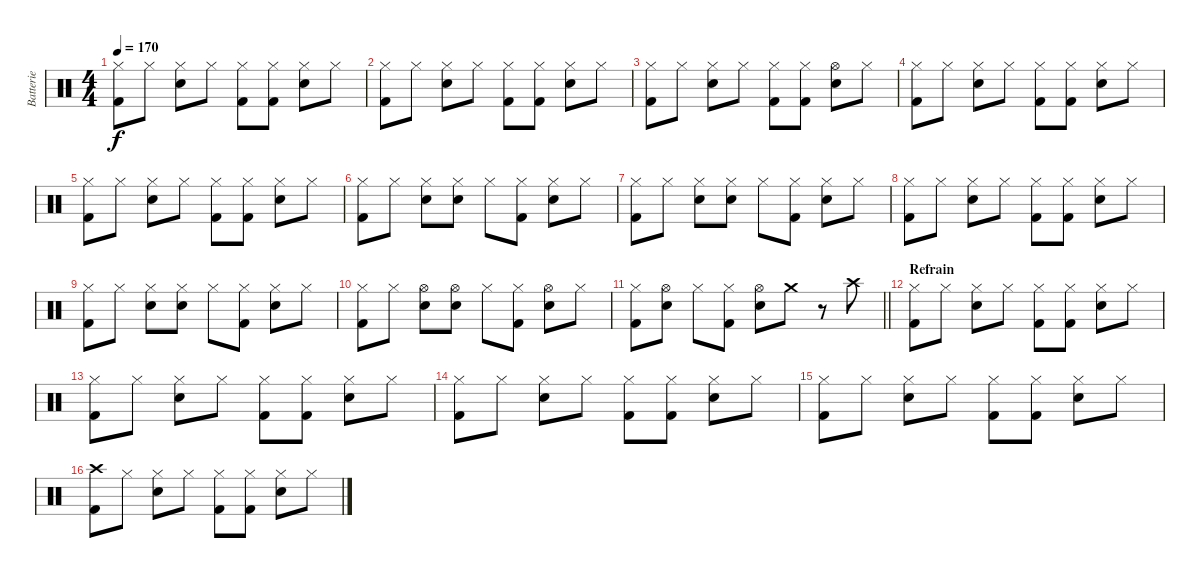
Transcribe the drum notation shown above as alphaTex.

\track ("Batterie" "Batterie") {instrument percussion}
\staff {score}
\articulation defaults
\ts (4 4)
\tempo 170
\clef neutral
\ks c
("Kick (hit) 2" "Hi-Hat (closed)").8{dy f} "Hi-Hat (closed)".8 ("Snare (hit) 2" "Hi-Hat (closed)").8 "Hi-Hat (closed)".8 ("Kick (hit) 2" "Hi-Hat (closed)").8 ("Kick (hit) 2" "Hi-Hat (closed)").8 ("Snare (hit) 2" "Hi-Hat (closed)").8 "Hi-Hat (closed)".8 |
("Kick (hit) 2" "Hi-Hat (closed)").8 "Hi-Hat (closed)".8 ("Snare (hit) 2" "Hi-Hat (closed)").8 "Hi-Hat (closed)".8 ("Kick (hit) 2" "Hi-Hat (closed)").8 ("Kick (hit) 2" "Hi-Hat (closed)").8 ("Snare (hit) 2" "Hi-Hat (closed)").8 "Hi-Hat (closed)".8 |
("Kick (hit) 2" "Hi-Hat (closed)").8 "Hi-Hat (closed)".8 ("Snare (hit) 2" "Hi-Hat (closed)").8 "Hi-Hat (closed)".8 ("Kick (hit) 2" "Hi-Hat (closed)").8 ("Kick (hit) 2" "Hi-Hat (closed)").8 ("Snare (hit) 2" "Hi-Hat (open)").8 "Hi-Hat (closed)".8 |
("Kick (hit) 2" "Hi-Hat (closed)").8 "Hi-Hat (closed)".8 ("Snare (hit) 2" "Hi-Hat (closed)").8 "Hi-Hat (closed)".8 ("Kick (hit) 2" "Hi-Hat (closed)").8 ("Kick (hit) 2" "Hi-Hat (closed)").8 ("Snare (hit) 2" "Hi-Hat (closed)").8 "Hi-Hat (closed)".8 |
("Kick (hit) 2" "Hi-Hat (closed)").8 "Hi-Hat (closed)".8 ("Snare (hit) 2" "Hi-Hat (closed)").8 "Hi-Hat (closed)".8 ("Kick (hit) 2" "Hi-Hat (closed)").8 ("Kick (hit) 2" "Hi-Hat (closed)").8 ("Snare (hit) 2" "Hi-Hat (closed)").8 "Hi-Hat (closed)".8 |
("Kick (hit) 2" "Hi-Hat (closed)").8 "Hi-Hat (closed)".8 ("Snare (hit) 2" "Hi-Hat (closed)").8 ("Snare (hit) 2" "Hi-Hat (closed)").8 "Hi-Hat (closed)".8 ("Kick (hit) 2" "Hi-Hat (closed)").8 ("Snare (hit) 2" "Hi-Hat (closed)").8 "Hi-Hat (closed)".8 |
("Kick (hit) 2" "Hi-Hat (closed)").8 "Hi-Hat (closed)".8 ("Snare (hit) 2" "Hi-Hat (closed)").8 ("Snare (hit) 2" "Hi-Hat (closed)").8 "Hi-Hat (closed)".8 ("Kick (hit) 2" "Hi-Hat (closed)").8 ("Snare (hit) 2" "Hi-Hat (closed)").8 "Hi-Hat (closed)".8 |
("Kick (hit) 2" "Hi-Hat (closed)").8 "Hi-Hat (closed)".8 ("Snare (hit) 2" "Hi-Hat (closed)").8 "Hi-Hat (closed)".8 ("Kick (hit) 2" "Hi-Hat (closed)").8 ("Kick (hit) 2" "Hi-Hat (closed)").8 ("Snare (hit) 2" "Hi-Hat (closed)").8 "Hi-Hat (closed)".8 |
("Kick (hit) 2" "Hi-Hat (closed)").8 "Hi-Hat (closed)".8 ("Snare (hit) 2" "Hi-Hat (closed)").8 ("Snare (hit) 2" "Hi-Hat (closed)").8 "Hi-Hat (closed)".8 ("Kick (hit) 2" "Hi-Hat (closed)").8 ("Snare (hit) 2" "Hi-Hat (closed)").8 "Hi-Hat (closed)".8 |
("Kick (hit) 2" "Hi-Hat (closed)").8 "Hi-Hat (closed)".8 ("Snare (hit) 2" "Hi-Hat (open)").8 ("Snare (hit) 2" "Hi-Hat (open)").8 "Hi-Hat (closed)".8 ("Kick (hit) 2" "Hi-Hat (closed)").8 ("Snare (hit) 2" "Hi-Hat (open)").8 "Hi-Hat (closed)".8 |
\barLineRight lightlight
("Kick (hit) 2" "Hi-Hat (closed)").8 ("Snare (hit) 2" "Hi-Hat (open)").8 "Hi-Hat (closed)".8 ("Kick (hit) 2" "Hi-Hat (closed)").8 ("Snare (hit) 2" "Hi-Hat (open)").8 "Crash medium (hit)".8 r.8 "Crash high (hit)".8 |
\section ("" "Refrain")
("Kick (hit) 2" "Hi-Hat (closed)").8 "Hi-Hat (closed)".8 ("Snare (hit) 2" "Hi-Hat (closed)").8 "Hi-Hat (closed)".8 ("Kick (hit) 2" "Hi-Hat (closed)").8 ("Kick (hit) 2" "Hi-Hat (closed)").8 ("Snare (hit) 2" "Hi-Hat (closed)").8 "Hi-Hat (closed)".8 |
("Kick (hit) 2" "Hi-Hat (closed)").8 "Hi-Hat (closed)".8 ("Snare (hit) 2" "Hi-Hat (closed)").8 "Hi-Hat (closed)".8 ("Kick (hit) 2" "Hi-Hat (closed)").8 ("Kick (hit) 2" "Hi-Hat (closed)").8 ("Snare (hit) 2" "Hi-Hat (closed)").8 "Hi-Hat (closed)".8 |
("Kick (hit) 2" "Hi-Hat (closed)").8 "Hi-Hat (closed)".8 ("Snare (hit) 2" "Hi-Hat (closed)").8 "Hi-Hat (closed)".8 ("Kick (hit) 2" "Hi-Hat (closed)").8 ("Kick (hit) 2" "Hi-Hat (closed)").8 ("Snare (hit) 2" "Hi-Hat (closed)").8 "Hi-Hat (closed)".8 |
("Kick (hit) 2" "Hi-Hat (closed)").8 "Hi-Hat (closed)".8 ("Snare (hit) 2" "Hi-Hat (closed)").8 "Hi-Hat (closed)".8 ("Kick (hit) 2" "Hi-Hat (closed)").8 ("Kick (hit) 2" "Hi-Hat (closed)").8 ("Snare (hit) 2" "Hi-Hat (closed)").8 "Hi-Hat (closed)".8 |
("Kick (hit) 2" "Crash high (hit)").8 "Hi-Hat (closed)".8 ("Snare (hit) 2" "Hi-Hat (closed)").8 "Hi-Hat (closed)".8 ("Kick (hit) 2" "Hi-Hat (closed)").8 ("Kick (hit) 2" "Hi-Hat (closed)").8 ("Snare (hit) 2" "Hi-Hat (closed)").8 "Hi-Hat (closed)".8
